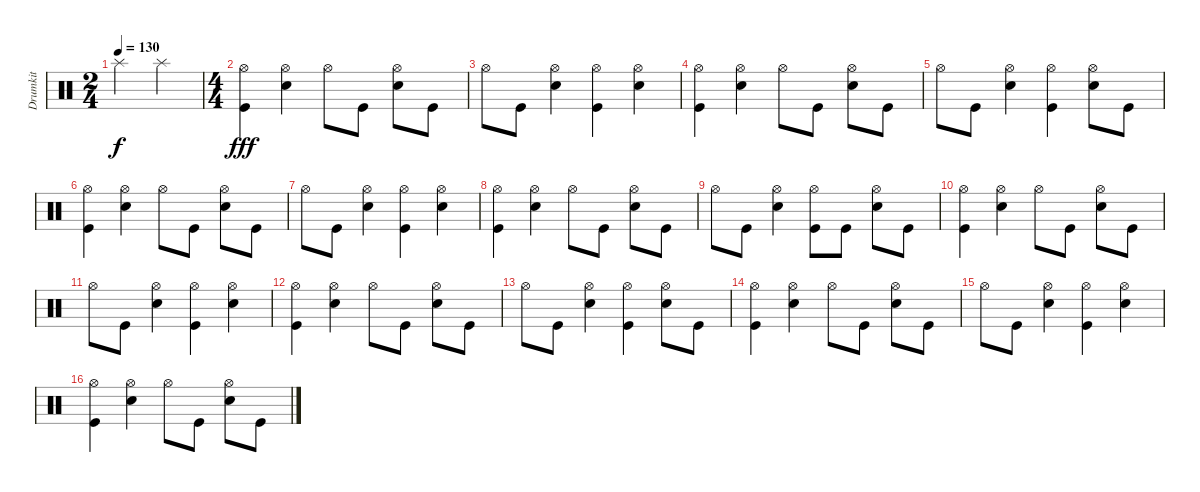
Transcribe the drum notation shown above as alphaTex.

\track ("Drumkit" "Drumkit") {instrument percussion}
\staff {score}
\articulation defaults
\ts (2 4)
\tempo 130
\clef neutral
\ks c "Splash (hit)".4{dy f} "Splash (hit)".4
|
\ts (4 4)
("Kick (hit)" "Hi-Hat (open)").4{dy fff} ("Snare (hit) 2" "Hi-Hat (open)").4 "Hi-Hat (open)".8 "Kick (hit)".8 ("Hi-Hat (open)" "Snare (hit) 2").8 "Kick (hit)".8 |
"Hi-Hat (open)".8 "Kick (hit)".8 ("Snare (hit) 2" "Hi-Hat (open)").4 ("Hi-Hat (open)" "Kick (hit)").4 ("Hi-Hat (open)" "Snare (hit) 2").4 |
("Kick (hit)" "Hi-Hat (open)").4 ("Snare (hit) 2" "Hi-Hat (open)").4 "Hi-Hat (open)".8 "Kick (hit)".8 ("Hi-Hat (open)" "Snare (hit) 2").8 "Kick (hit)".8 |
"Hi-Hat (open)".8 "Kick (hit)".8 ("Snare (hit) 2" "Hi-Hat (open)").4 ("Hi-Hat (open)" "Kick (hit)").4 ("Hi-Hat (open)" "Snare (hit) 2").8 "Kick (hit)".8 |
("Kick (hit)" "Hi-Hat (open)").4 ("Snare (hit) 2" "Hi-Hat (open)").4 "Hi-Hat (open)".8 "Kick (hit)".8 ("Hi-Hat (open)" "Snare (hit) 2").8 "Kick (hit)".8 |
"Hi-Hat (open)".8 "Kick (hit)".8 ("Snare (hit) 2" "Hi-Hat (open)").4 ("Hi-Hat (open)" "Kick (hit)").4 ("Hi-Hat (open)" "Snare (hit) 2").4 |
("Kick (hit)" "Hi-Hat (open)").4 ("Snare (hit) 2" "Hi-Hat (open)").4 "Hi-Hat (open)".8 "Kick (hit)".8 ("Hi-Hat (open)" "Snare (hit) 2").8 "Kick (hit)".8 |
"Hi-Hat (open)".8 "Kick (hit)".8 ("Snare (hit) 2" "Hi-Hat (open)").4 ("Hi-Hat (open)" "Kick (hit)").8 "Kick (hit)".8 ("Hi-Hat (open)" "Snare (hit) 2").8 "Kick (hit)".8 |
("Kick (hit)" "Hi-Hat (open)").4 ("Snare (hit) 2" "Hi-Hat (open)").4 "Hi-Hat (open)".8 "Kick (hit)".8 ("Hi-Hat (open)" "Snare (hit) 2").8 "Kick (hit)".8 |
"Hi-Hat (open)".8 "Kick (hit)".8 ("Snare (hit) 2" "Hi-Hat (open)").4 ("Hi-Hat (open)" "Kick (hit)").4 ("Hi-Hat (open)" "Snare (hit) 2").4 |
("Kick (hit)" "Hi-Hat (open)").4 ("Snare (hit) 2" "Hi-Hat (open)").4 "Hi-Hat (open)".8 "Kick (hit)".8 ("Hi-Hat (open)" "Snare (hit) 2").8 "Kick (hit)".8 |
"Hi-Hat (open)".8 "Kick (hit)".8 ("Snare (hit) 2" "Hi-Hat (open)").4 ("Hi-Hat (open)" "Kick (hit)").4 ("Hi-Hat (open)" "Snare (hit) 2").8 "Kick (hit)".8 |
("Kick (hit)" "Hi-Hat (open)").4 ("Snare (hit) 2" "Hi-Hat (open)").4 "Hi-Hat (open)".8 "Kick (hit)".8 ("Hi-Hat (open)" "Snare (hit) 2").8 "Kick (hit)".8 |
"Hi-Hat (open)".8 "Kick (hit)".8 ("Snare (hit) 2" "Hi-Hat (open)").4 ("Hi-Hat (open)" "Kick (hit)").4 ("Hi-Hat (open)" "Snare (hit) 2").4 |
("Kick (hit)" "Hi-Hat (open)").4 ("Snare (hit) 2" "Hi-Hat (open)").4 "Hi-Hat (open)".8 "Kick (hit)".8 ("Hi-Hat (open)" "Snare (hit) 2").8 "Kick (hit)".8
